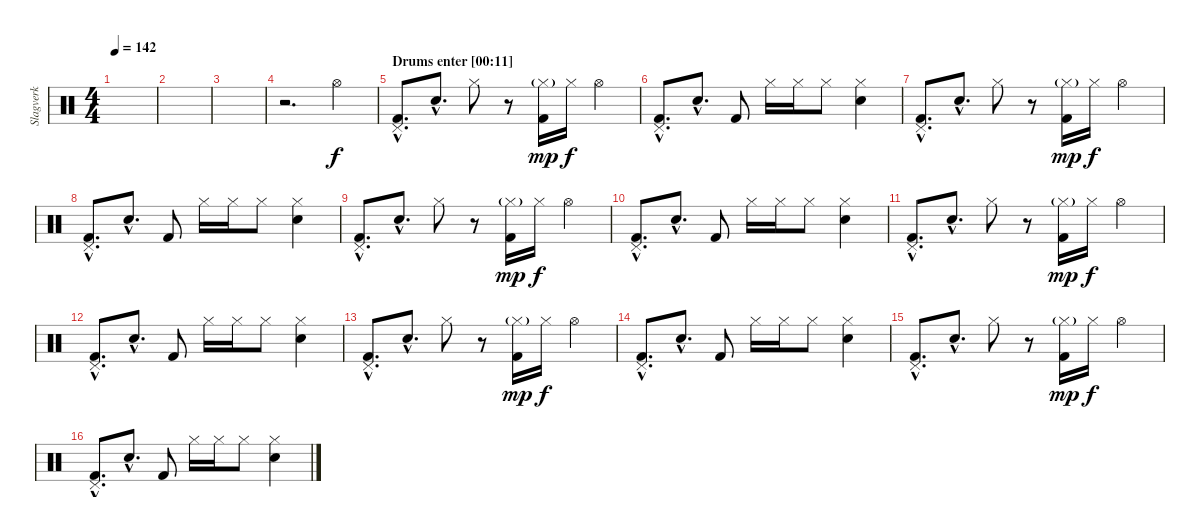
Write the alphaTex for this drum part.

\track ("Slagverk" "Slagverk") {instrument percussion}
\staff {score}
\articulation defaults
\ts (4 4)
\tempo 142
\clef neutral
\ks c
|
|
|
r.2{d} "Hi-Hat (open)".4 |
\section ("" "Drums enter [00:11]")
("Pedal Hi-Hat (hit)"{hac} "Kick (hit) 2"{hac}).8{d} "Electric Snare (hit)"{hac}.8{d} "Hi-Hat (closed)".8 r.8 ("Hi-Hat (closed)"{g} "Kick (hit) 2").16{dy mp} "Hi-Hat (closed)".16{dy f} "Hi-Hat (open)".4 |
("Pedal Hi-Hat (hit)"{hac} "Kick (hit) 2"{hac}).8{d} "Electric Snare (hit)"{hac}.8{d} "Kick (hit) 2".8 "Hi-Hat (closed)".16 "Hi-Hat (closed)".16 "Hi-Hat (closed)".8 ("Hi-Hat (closed)" "Electric Snare (hit)").4 |
("Pedal Hi-Hat (hit)"{hac} "Kick (hit) 2"{hac}).8{d} "Electric Snare (hit)"{hac}.8{d} "Hi-Hat (closed)".8 r.8 ("Hi-Hat (closed)"{g} "Kick (hit) 2").16{dy mp} "Hi-Hat (closed)".16{dy f} "Hi-Hat (open)".4 |
("Pedal Hi-Hat (hit)"{hac} "Kick (hit) 2"{hac}).8{d} "Electric Snare (hit)"{hac}.8{d} "Kick (hit) 2".8 "Hi-Hat (closed)".16 "Hi-Hat (closed)".16 "Hi-Hat (closed)".8 ("Hi-Hat (closed)" "Electric Snare (hit)").4 |
("Pedal Hi-Hat (hit)"{hac} "Kick (hit) 2"{hac}).8{d} "Electric Snare (hit)"{hac}.8{d} "Hi-Hat (closed)".8 r.8 ("Hi-Hat (closed)"{g} "Kick (hit) 2").16{dy mp} "Hi-Hat (closed)".16{dy f} "Hi-Hat (open)".4 |
("Pedal Hi-Hat (hit)"{hac} "Kick (hit) 2"{hac}).8{d} "Electric Snare (hit)"{hac}.8{d} "Kick (hit) 2".8 "Hi-Hat (closed)".16 "Hi-Hat (closed)".16 "Hi-Hat (closed)".8 ("Hi-Hat (closed)" "Electric Snare (hit)").4 |
("Pedal Hi-Hat (hit)"{hac} "Kick (hit) 2"{hac}).8{d} "Electric Snare (hit)"{hac}.8{d} "Hi-Hat (closed)".8 r.8 ("Hi-Hat (closed)"{g} "Kick (hit) 2").16{dy mp} "Hi-Hat (closed)".16{dy f} "Hi-Hat (open)".4 |
("Pedal Hi-Hat (hit)"{hac} "Kick (hit) 2"{hac}).8{d} "Electric Snare (hit)"{hac}.8{d} "Kick (hit) 2".8 "Hi-Hat (closed)".16 "Hi-Hat (closed)".16 "Hi-Hat (closed)".8 ("Hi-Hat (closed)" "Electric Snare (hit)").4 |
("Pedal Hi-Hat (hit)"{hac} "Kick (hit) 2"{hac}).8{d} "Electric Snare (hit)"{hac}.8{d} "Hi-Hat (closed)".8 r.8 ("Hi-Hat (closed)"{g} "Kick (hit) 2").16{dy mp} "Hi-Hat (closed)".16{dy f} "Hi-Hat (open)".4 |
("Pedal Hi-Hat (hit)"{hac} "Kick (hit) 2"{hac}).8{d} "Electric Snare (hit)"{hac}.8{d} "Kick (hit) 2".8 "Hi-Hat (closed)".16 "Hi-Hat (closed)".16 "Hi-Hat (closed)".8 ("Hi-Hat (closed)" "Electric Snare (hit)").4 |
("Pedal Hi-Hat (hit)"{hac} "Kick (hit) 2"{hac}).8{d} "Electric Snare (hit)"{hac}.8{d} "Hi-Hat (closed)".8 r.8 ("Hi-Hat (closed)"{g} "Kick (hit) 2").16{dy mp} "Hi-Hat (closed)".16{dy f} "Hi-Hat (open)".4 |
("Pedal Hi-Hat (hit)"{hac} "Kick (hit) 2"{hac}).8{d} "Electric Snare (hit)"{hac}.8{d} "Kick (hit) 2".8 "Hi-Hat (closed)".16 "Hi-Hat (closed)".16 "Hi-Hat (closed)".8 ("Hi-Hat (closed)" "Electric Snare (hit)").4
